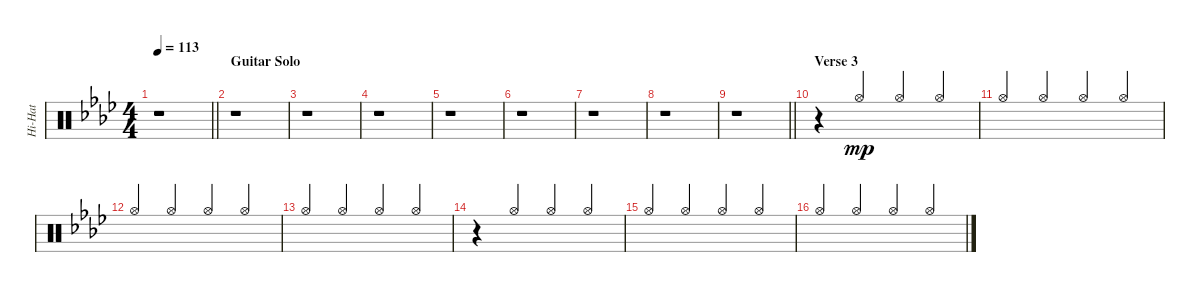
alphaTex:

\track ("Hi-Hat" "Hi-Hat") {instrument percussion}
\staff {score}
\articulation defaults
\ts (4 4)
\tempo 113
\clef neutral
\barLineRight lightlight
\ks fminor
r.1{dy mp} |
\section ("" "Guitar Solo")
r.1 |
r.1 |
r.1 |
r.1 |
r.1 |
r.1 |
r.1 |
\barLineRight lightlight
r.1 |
\section ("" "Verse 3")
r.4 "Hi-Hat (open)".4{beam Up} "Hi-Hat (open)".4{beam Up} "Hi-Hat (open)".4{beam Up} |
"Hi-Hat (open)".4{beam Up} "Hi-Hat (open)".4{beam Up} "Hi-Hat (open)".4{beam Up} "Hi-Hat (open)".4{beam Up} |
"Hi-Hat (open)".4{beam Up} "Hi-Hat (open)".4{beam Up} "Hi-Hat (open)".4{beam Up} "Hi-Hat (open)".4{beam Up} |
"Hi-Hat (open)".4{beam Up} "Hi-Hat (open)".4{beam Up} "Hi-Hat (open)".4{beam Up} "Hi-Hat (open)".4{beam Up} |
r.4 "Hi-Hat (open)".4{beam Up} "Hi-Hat (open)".4{beam Up} "Hi-Hat (open)".4{beam Up} |
"Hi-Hat (open)".4{beam Up} "Hi-Hat (open)".4{beam Up} "Hi-Hat (open)".4{beam Up} "Hi-Hat (open)".4{beam Up} |
"Hi-Hat (open)".4{beam Up} "Hi-Hat (open)".4{beam Up} "Hi-Hat (open)".4{beam Up} "Hi-Hat (open)".4{beam Up}
